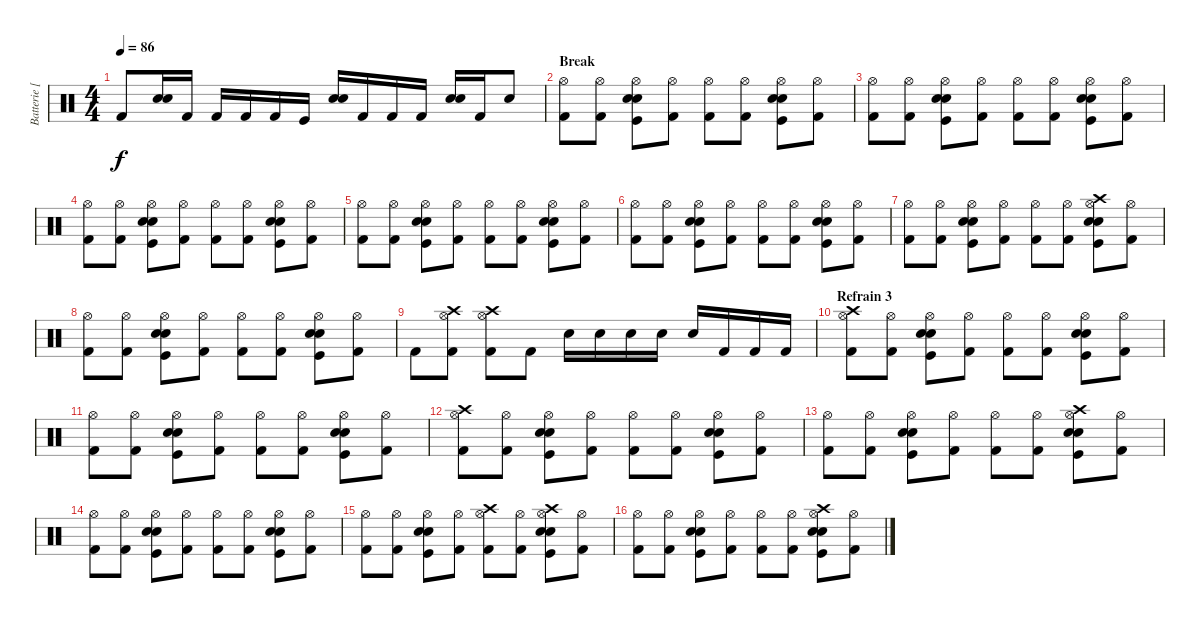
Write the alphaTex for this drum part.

\track ("Batterie [Dominic Howard]" "Batterie [") {instrument percussion}
\staff {score}
\articulation defaults
\ts (4 4)
\tempo 86
\clef neutral
\ks c "Kick (hit) 2".8{dy f}
("Snare (hit) 2" "Electric Snare (hit)").16 "Kick (hit) 2".16 "Kick (hit) 2".16 "Kick (hit) 2".16 "Kick (hit) 2".16 "Kick (hit)".16 ("Snare (hit) 2" "Electric Snare (hit)").16 "Kick (hit) 2".16 "Kick (hit) 2".16 "Kick (hit) 2".16 ("Snare (hit) 2" "Electric Snare (hit)").16 "Kick (hit) 2".16 "Snare (hit) 2".8 |
\section ("" "Break")
("Hi-Hat (open)" "Kick (hit) 2").8 ("Hi-Hat (open)" "Kick (hit) 2").8 ("Hi-Hat (open)" "Snare (hit) 2" "Electric Snare (hit)" "Kick (hit)").8 ("Hi-Hat (open)" "Kick (hit) 2").8 ("Hi-Hat (open)" "Kick (hit) 2").8 ("Hi-Hat (open)" "Kick (hit) 2").8 ("Hi-Hat (open)" "Snare (hit) 2" "Electric Snare (hit)" "Kick (hit)").8 ("Hi-Hat (open)" "Kick (hit) 2").8 |
("Hi-Hat (open)" "Kick (hit) 2").8 ("Hi-Hat (open)" "Kick (hit) 2").8 ("Hi-Hat (open)" "Snare (hit) 2" "Electric Snare (hit)" "Kick (hit)").8 ("Hi-Hat (open)" "Kick (hit) 2").8 ("Hi-Hat (open)" "Kick (hit) 2").8 ("Hi-Hat (open)" "Kick (hit) 2").8 ("Hi-Hat (open)" "Snare (hit) 2" "Electric Snare (hit)" "Kick (hit)").8 ("Hi-Hat (open)" "Kick (hit) 2").8 |
("Hi-Hat (open)" "Kick (hit) 2").8 ("Hi-Hat (open)" "Kick (hit) 2").8 ("Hi-Hat (open)" "Snare (hit) 2" "Electric Snare (hit)" "Kick (hit)").8 ("Hi-Hat (open)" "Kick (hit) 2").8 ("Hi-Hat (open)" "Kick (hit) 2").8 ("Hi-Hat (open)" "Kick (hit) 2").8 ("Hi-Hat (open)" "Snare (hit) 2" "Electric Snare (hit)" "Kick (hit)").8 ("Hi-Hat (open)" "Kick (hit) 2").8 |
("Hi-Hat (open)" "Kick (hit) 2").8 ("Hi-Hat (open)" "Kick (hit) 2").8 ("Hi-Hat (open)" "Snare (hit) 2" "Electric Snare (hit)" "Kick (hit)").8 ("Hi-Hat (open)" "Kick (hit) 2").8 ("Hi-Hat (open)" "Kick (hit) 2").8 ("Hi-Hat (open)" "Kick (hit) 2").8 ("Hi-Hat (open)" "Snare (hit) 2" "Electric Snare (hit)" "Kick (hit)").8 ("Hi-Hat (open)" "Kick (hit) 2").8 |
("Hi-Hat (open)" "Kick (hit) 2").8 ("Hi-Hat (open)" "Kick (hit) 2").8 ("Hi-Hat (open)" "Snare (hit) 2" "Electric Snare (hit)" "Kick (hit)").8 ("Hi-Hat (open)" "Kick (hit) 2").8 ("Hi-Hat (open)" "Kick (hit) 2").8 ("Hi-Hat (open)" "Kick (hit) 2").8 ("Hi-Hat (open)" "Snare (hit) 2" "Electric Snare (hit)" "Kick (hit)").8 ("Hi-Hat (open)" "Kick (hit) 2").8 |
("Hi-Hat (open)" "Kick (hit) 2").8 ("Hi-Hat (open)" "Kick (hit) 2").8 ("Hi-Hat (open)" "Snare (hit) 2" "Electric Snare (hit)" "Kick (hit)").8 ("Hi-Hat (open)" "Kick (hit) 2").8 ("Hi-Hat (open)" "Kick (hit) 2").8 ("Hi-Hat (open)" "Kick (hit) 2").8 ("Hi-Hat (open)" "Snare (hit) 2" "Electric Snare (hit)" "Kick (hit)" "Crash high (hit)").8 ("Hi-Hat (open)" "Kick (hit) 2").8 |
("Hi-Hat (open)" "Kick (hit) 2").8 ("Hi-Hat (open)" "Kick (hit) 2").8 ("Hi-Hat (open)" "Snare (hit) 2" "Electric Snare (hit)" "Kick (hit)").8 ("Hi-Hat (open)" "Kick (hit) 2").8 ("Hi-Hat (open)" "Kick (hit) 2").8 ("Hi-Hat (open)" "Kick (hit) 2").8 ("Hi-Hat (open)" "Snare (hit) 2" "Electric Snare (hit)" "Kick (hit)").8 ("Hi-Hat (open)" "Kick (hit) 2").8 |
"Kick (hit) 2".8 ("Crash high (hit)" "Hi-Hat (open)" "Kick (hit) 2").8 ("Crash high (hit)" "Hi-Hat (open)" "Kick (hit) 2").8 "Kick (hit) 2".8 "Snare (hit) 2".16 "Snare (hit) 2".16 "Snare (hit) 2".16 "Snare (hit) 2".16 "Snare (hit) 2".16 "Kick (hit) 2".16 "Kick (hit) 2".16 "Kick (hit) 2".16 |
\section ("" "Refrain 3")
("Hi-Hat (open)" "Crash high (hit)" "Kick (hit) 2").8 ("Hi-Hat (open)" "Kick (hit) 2").8 ("Hi-Hat (open)" "Snare (hit) 2" "Electric Snare (hit)" "Kick (hit)").8 ("Hi-Hat (open)" "Kick (hit) 2").8 ("Hi-Hat (open)" "Kick (hit) 2").8 ("Hi-Hat (open)" "Kick (hit) 2").8 ("Hi-Hat (open)" "Snare (hit) 2" "Electric Snare (hit)" "Kick (hit)").8 ("Hi-Hat (open)" "Kick (hit) 2").8 |
("Hi-Hat (open)" "Kick (hit) 2").8 ("Hi-Hat (open)" "Kick (hit) 2").8 ("Hi-Hat (open)" "Snare (hit) 2" "Electric Snare (hit)" "Kick (hit)").8 ("Hi-Hat (open)" "Kick (hit) 2").8 ("Hi-Hat (open)" "Kick (hit) 2").8 ("Hi-Hat (open)" "Kick (hit) 2").8 ("Hi-Hat (open)" "Snare (hit) 2" "Electric Snare (hit)" "Kick (hit)").8 ("Hi-Hat (open)" "Kick (hit) 2").8 |
("Hi-Hat (open)" "Crash high (hit)" "Kick (hit) 2").8 ("Hi-Hat (open)" "Kick (hit) 2").8 ("Hi-Hat (open)" "Snare (hit) 2" "Electric Snare (hit)" "Kick (hit)").8 ("Hi-Hat (open)" "Kick (hit) 2").8 ("Hi-Hat (open)" "Kick (hit) 2").8 ("Hi-Hat (open)" "Kick (hit) 2").8 ("Hi-Hat (open)" "Snare (hit) 2" "Electric Snare (hit)" "Kick (hit)").8 ("Hi-Hat (open)" "Kick (hit) 2").8 |
("Hi-Hat (open)" "Kick (hit) 2").8 ("Hi-Hat (open)" "Kick (hit) 2").8 ("Hi-Hat (open)" "Snare (hit) 2" "Electric Snare (hit)" "Kick (hit)").8 ("Hi-Hat (open)" "Kick (hit) 2").8 ("Hi-Hat (open)" "Kick (hit) 2").8 ("Hi-Hat (open)" "Kick (hit) 2").8 ("Hi-Hat (open)" "Snare (hit) 2" "Electric Snare (hit)" "Kick (hit)" "Crash high (hit)").8 ("Hi-Hat (open)" "Kick (hit) 2").8 |
("Hi-Hat (open)" "Kick (hit) 2").8 ("Hi-Hat (open)" "Kick (hit) 2").8 ("Hi-Hat (open)" "Snare (hit) 2" "Electric Snare (hit)" "Kick (hit)").8 ("Hi-Hat (open)" "Kick (hit) 2").8 ("Hi-Hat (open)" "Kick (hit) 2").8 ("Hi-Hat (open)" "Kick (hit) 2").8 ("Hi-Hat (open)" "Snare (hit) 2" "Electric Snare (hit)" "Kick (hit)").8 ("Hi-Hat (open)" "Kick (hit) 2").8 |
("Hi-Hat (open)" "Kick (hit) 2").8 ("Hi-Hat (open)" "Kick (hit) 2").8 ("Hi-Hat (open)" "Snare (hit) 2" "Electric Snare (hit)" "Kick (hit)").8 ("Hi-Hat (open)" "Kick (hit) 2").8 ("Hi-Hat (open)" "Kick (hit) 2" "Crash high (hit)").8 ("Hi-Hat (open)" "Kick (hit) 2").8 ("Hi-Hat (open)" "Snare (hit) 2" "Electric Snare (hit)" "Kick (hit)" "Crash high (hit)").8 ("Hi-Hat (open)" "Kick (hit) 2").8 |
("Hi-Hat (open)" "Kick (hit) 2").8 ("Hi-Hat (open)" "Kick (hit) 2").8 ("Hi-Hat (open)" "Snare (hit) 2" "Electric Snare (hit)" "Kick (hit)").8 ("Hi-Hat (open)" "Kick (hit) 2").8 ("Hi-Hat (open)" "Kick (hit) 2").8 ("Hi-Hat (open)" "Kick (hit) 2").8 ("Hi-Hat (open)" "Snare (hit) 2" "Electric Snare (hit)" "Kick (hit)" "Crash high (hit)").8 ("Hi-Hat (open)" "Kick (hit) 2").8
